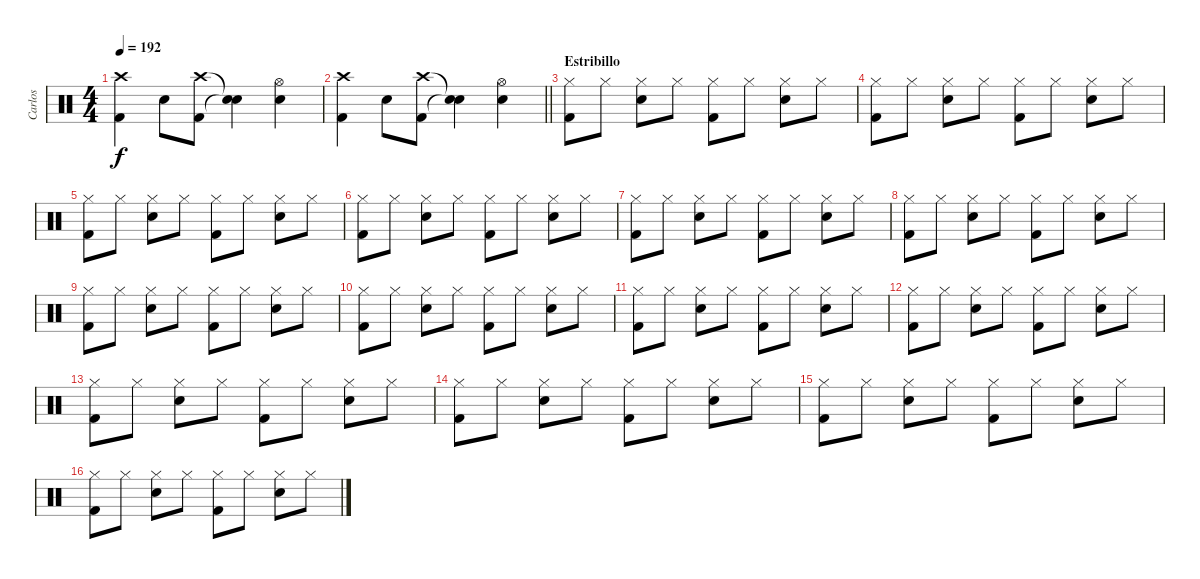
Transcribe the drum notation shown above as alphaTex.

\track ("Carlos" "Carlos") {instrument percussion}
\staff {score}
\articulation defaults
\ts (4 4)
\tempo 192
\clef neutral
\ks c
("Crash high (hit)" "Kick (hit) 2").4{dy f} "Snare (hit) 2".8 ("Crash high (hit)" "Kick (hit) 2").8 ("Snare (hit)"{t} "Snare (hit)"{t}).4 ("Hi-Hat (open)" "Snare (hit) 2").4 |
\barLineRight lightlight
("Crash high (hit)" "Kick (hit) 2").4 "Snare (hit) 2".8 ("Crash high (hit)" "Kick (hit) 2").8 ("Snare (hit)"{t} "Snare (hit)"{t}).4 ("Hi-Hat (open)" "Snare (hit) 2").4 |
\section ("" "Estribillo")
("Hi-Hat (closed)" "Kick (hit) 2").8 "Hi-Hat (closed)".8 ("Hi-Hat (closed)" "Snare (hit) 2").8 "Hi-Hat (closed)".8 ("Hi-Hat (closed)" "Kick (hit) 2").8 "Hi-Hat (closed)".8 ("Hi-Hat (closed)" "Snare (hit) 2").8 "Hi-Hat (closed)".8 |
("Hi-Hat (closed)" "Kick (hit) 2").8 "Hi-Hat (closed)".8 ("Hi-Hat (closed)" "Snare (hit) 2").8 "Hi-Hat (closed)".8 ("Hi-Hat (closed)" "Kick (hit) 2").8 "Hi-Hat (closed)".8 ("Hi-Hat (closed)" "Snare (hit) 2").8 "Hi-Hat (closed)".8 |
("Hi-Hat (closed)" "Kick (hit) 2").8 "Hi-Hat (closed)".8 ("Hi-Hat (closed)" "Snare (hit) 2").8 "Hi-Hat (closed)".8 ("Hi-Hat (closed)" "Kick (hit) 2").8 "Hi-Hat (closed)".8 ("Hi-Hat (closed)" "Snare (hit) 2").8 "Hi-Hat (closed)".8 |
("Hi-Hat (closed)" "Kick (hit) 2").8 "Hi-Hat (closed)".8 ("Hi-Hat (closed)" "Snare (hit) 2").8 "Hi-Hat (closed)".8 ("Hi-Hat (closed)" "Kick (hit) 2").8 "Hi-Hat (closed)".8 ("Hi-Hat (closed)" "Snare (hit) 2").8 "Hi-Hat (closed)".8 |
("Hi-Hat (closed)" "Kick (hit) 2").8 "Hi-Hat (closed)".8 ("Hi-Hat (closed)" "Snare (hit) 2").8 "Hi-Hat (closed)".8 ("Hi-Hat (closed)" "Kick (hit) 2").8 "Hi-Hat (closed)".8 ("Hi-Hat (closed)" "Snare (hit) 2").8 "Hi-Hat (closed)".8 |
("Hi-Hat (closed)" "Kick (hit) 2").8 "Hi-Hat (closed)".8 ("Hi-Hat (closed)" "Snare (hit) 2").8 "Hi-Hat (closed)".8 ("Hi-Hat (closed)" "Kick (hit) 2").8 "Hi-Hat (closed)".8 ("Hi-Hat (closed)" "Snare (hit) 2").8 "Hi-Hat (closed)".8 |
("Hi-Hat (closed)" "Kick (hit) 2").8 "Hi-Hat (closed)".8 ("Hi-Hat (closed)" "Snare (hit) 2").8 "Hi-Hat (closed)".8 ("Hi-Hat (closed)" "Kick (hit) 2").8 "Hi-Hat (closed)".8 ("Hi-Hat (closed)" "Snare (hit) 2").8 "Hi-Hat (closed)".8 |
("Hi-Hat (closed)" "Kick (hit) 2").8 "Hi-Hat (closed)".8 ("Hi-Hat (closed)" "Snare (hit) 2").8 "Hi-Hat (closed)".8 ("Hi-Hat (closed)" "Kick (hit) 2").8 "Hi-Hat (closed)".8 ("Hi-Hat (closed)" "Snare (hit) 2").8 "Hi-Hat (closed)".8 |
("Hi-Hat (closed)" "Kick (hit) 2").8 "Hi-Hat (closed)".8 ("Hi-Hat (closed)" "Snare (hit) 2").8 "Hi-Hat (closed)".8 ("Hi-Hat (closed)" "Kick (hit) 2").8 "Hi-Hat (closed)".8 ("Hi-Hat (closed)" "Snare (hit) 2").8 "Hi-Hat (closed)".8 |
("Hi-Hat (closed)" "Kick (hit) 2").8 "Hi-Hat (closed)".8 ("Hi-Hat (closed)" "Snare (hit) 2").8 "Hi-Hat (closed)".8 ("Hi-Hat (closed)" "Kick (hit) 2").8 "Hi-Hat (closed)".8 ("Hi-Hat (closed)" "Snare (hit) 2").8 "Hi-Hat (closed)".8 |
("Hi-Hat (closed)" "Kick (hit) 2").8 "Hi-Hat (closed)".8 ("Hi-Hat (closed)" "Snare (hit) 2").8 "Hi-Hat (closed)".8 ("Hi-Hat (closed)" "Kick (hit) 2").8 "Hi-Hat (closed)".8 ("Hi-Hat (closed)" "Snare (hit) 2").8 "Hi-Hat (closed)".8 |
("Hi-Hat (closed)" "Kick (hit) 2").8 "Hi-Hat (closed)".8 ("Hi-Hat (closed)" "Snare (hit) 2").8 "Hi-Hat (closed)".8 ("Hi-Hat (closed)" "Kick (hit) 2").8 "Hi-Hat (closed)".8 ("Hi-Hat (closed)" "Snare (hit) 2").8 "Hi-Hat (closed)".8 |
("Hi-Hat (closed)" "Kick (hit) 2").8 "Hi-Hat (closed)".8 ("Hi-Hat (closed)" "Snare (hit) 2").8 "Hi-Hat (closed)".8 ("Hi-Hat (closed)" "Kick (hit) 2").8 "Hi-Hat (closed)".8 ("Hi-Hat (closed)" "Snare (hit) 2").8 "Hi-Hat (closed)".8 |
("Hi-Hat (closed)" "Kick (hit) 2").8 "Hi-Hat (closed)".8 ("Hi-Hat (closed)" "Snare (hit) 2").8 "Hi-Hat (closed)".8 ("Hi-Hat (closed)" "Kick (hit) 2").8 "Hi-Hat (closed)".8 ("Hi-Hat (closed)" "Snare (hit) 2").8 "Hi-Hat (closed)".8
